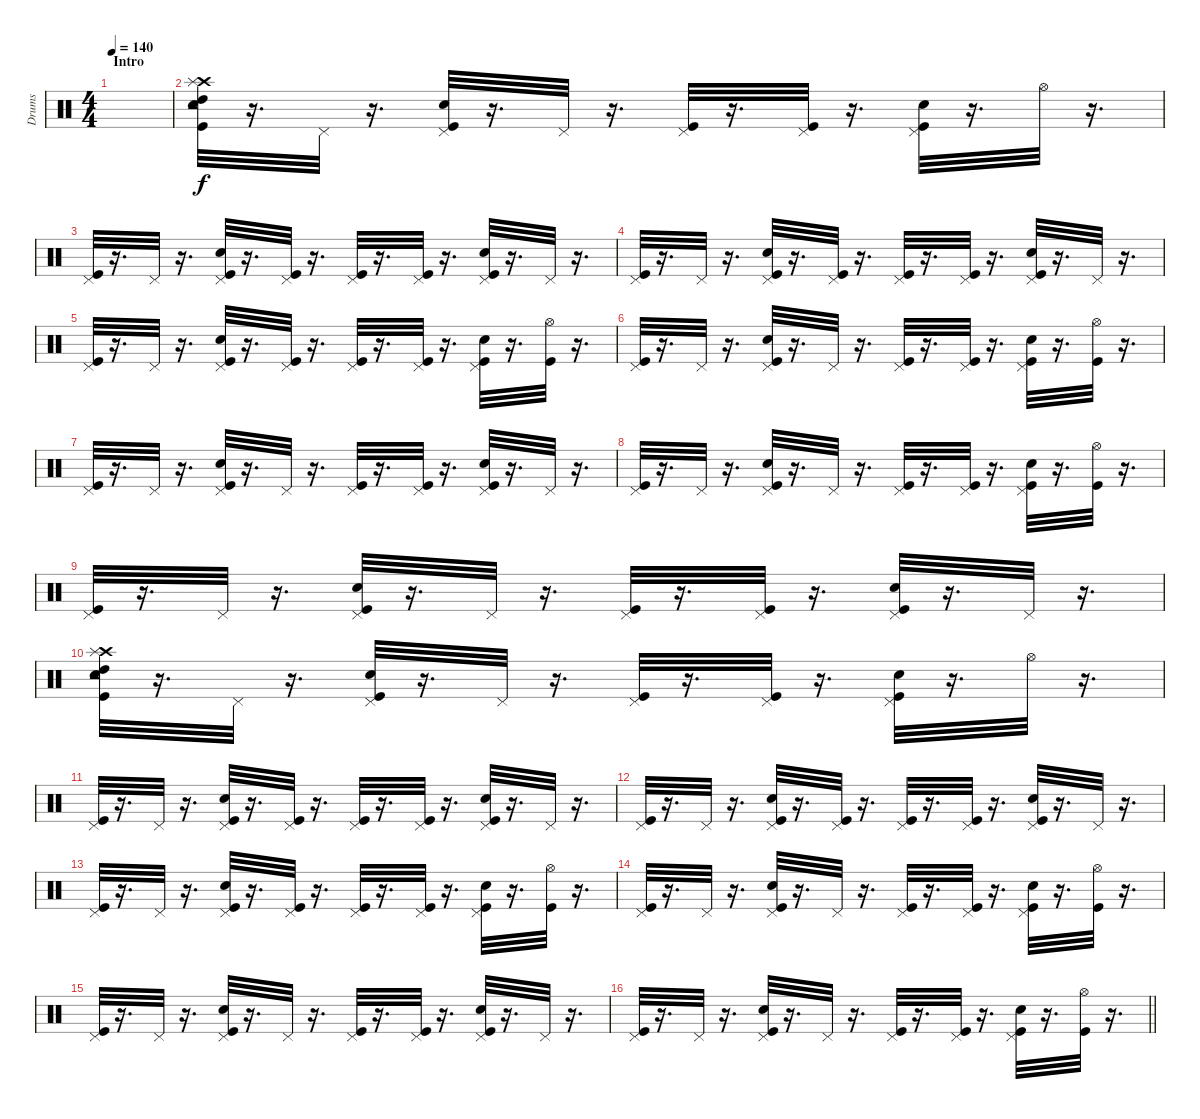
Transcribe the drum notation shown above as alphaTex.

\track ("Drums" "Drums") {instrument percussion}
\staff {score}
\articulation defaults
\ts (4 4)
\section ("" "Intro")
\tempo 140
\clef neutral
\ks c
|
("Crash high (hit)" "Kick (hit)" "Tambourine (hit)" "Snare (hit) 2" "Splash (hit)" "High Tom (hit)").32 r.16{d} "Pedal Hi-Hat (hit)".32 r.16{d} ("Snare (hit) 2" "Pedal Hi-Hat (hit)" "Kick (hit)").32 r.16{d} "Pedal Hi-Hat (hit)".32 r.16{d} ("Pedal Hi-Hat (hit)" "Kick (hit)").32 r.16{d} ("Pedal Hi-Hat (hit)" "Kick (hit)").32 r.16{d} ("Pedal Hi-Hat (hit)" "Kick (hit)" "Snare (hit) 2").32 r.16{d} "Hi-Hat (open)".32 r.16{d} |
("Pedal Hi-Hat (hit)" "Kick (hit)").32 r.16{d} "Pedal Hi-Hat (hit)".32 r.16{d} ("Kick (hit)" "Snare (hit) 2" "Pedal Hi-Hat (hit)").32 r.16{d} ("Pedal Hi-Hat (hit)" "Kick (hit)").32 r.16{d} ("Pedal Hi-Hat (hit)" "Kick (hit)").32 r.16{d} ("Pedal Hi-Hat (hit)" "Kick (hit)").32 r.16{d} ("Snare (hit) 2" "Kick (hit)" "Pedal Hi-Hat (hit)").32 r.16{d} "Pedal Hi-Hat (hit)".32 r.16{d} |
("Pedal Hi-Hat (hit)" "Kick (hit)").32 r.16{d} "Pedal Hi-Hat (hit)".32 r.16{d} ("Snare (hit) 2" "Kick (hit)" "Pedal Hi-Hat (hit)").32 r.16{d} ("Kick (hit)" "Pedal Hi-Hat (hit)").32 r.16{d} ("Pedal Hi-Hat (hit)" "Kick (hit)").32 r.16{d} ("Pedal Hi-Hat (hit)" "Kick (hit)").32 r.16{d} ("Pedal Hi-Hat (hit)" "Snare (hit) 2" "Kick (hit)").32 r.16{d} "Pedal Hi-Hat (hit)".32 r.16{d} |
("Pedal Hi-Hat (hit)" "Kick (hit)").32 r.16{d} "Pedal Hi-Hat (hit)".32 r.16{d} ("Kick (hit)" "Pedal Hi-Hat (hit)" "Snare (hit) 2").32 r.16{d} ("Pedal Hi-Hat (hit)" "Kick (hit)").32 r.16{d} ("Pedal Hi-Hat (hit)" "Kick (hit)").32 r.16{d} ("Kick (hit)" "Pedal Hi-Hat (hit)").32 r.16{d} ("Kick (hit)" "Snare (hit) 2" "Pedal Hi-Hat (hit)").32 r.16{d} ("Hi-Hat (open)" "Kick (hit)").32 r.16{d} |
("Pedal Hi-Hat (hit)" "Kick (hit)").32 r.16{d} "Pedal Hi-Hat (hit)".32 r.16{d} ("Pedal Hi-Hat (hit)" "Kick (hit)" "Snare (hit) 2").32 r.16{d} "Pedal Hi-Hat (hit)".32 r.16{d} ("Kick (hit)" "Pedal Hi-Hat (hit)").32 r.16{d} ("Kick (hit)" "Pedal Hi-Hat (hit)").32 r.16{d} ("Kick (hit)" "Snare (hit) 2" "Pedal Hi-Hat (hit)").32 r.16{d} ("Kick (hit)" "Hi-Hat (open)").32 r.16{d} |
("Kick (hit)" "Pedal Hi-Hat (hit)").32 r.16{d} "Pedal Hi-Hat (hit)".32 r.16{d} ("Pedal Hi-Hat (hit)" "Kick (hit)" "Snare (hit) 2").32 r.16{d} "Pedal Hi-Hat (hit)".32 r.16{d} ("Pedal Hi-Hat (hit)" "Kick (hit)").32 r.16{d} ("Pedal Hi-Hat (hit)" "Kick (hit)").32 r.16{d} ("Snare (hit) 2" "Kick (hit)" "Pedal Hi-Hat (hit)").32 r.16{d} "Pedal Hi-Hat (hit)".32 r.16{d} |
("Pedal Hi-Hat (hit)" "Kick (hit)").32 r.16{d} "Pedal Hi-Hat (hit)".32 r.16{d} ("Pedal Hi-Hat (hit)" "Kick (hit)" "Snare (hit) 2").32 r.16{d} "Pedal Hi-Hat (hit)".32 r.16{d} ("Kick (hit)" "Pedal Hi-Hat (hit)").32 r.16{d} ("Kick (hit)" "Pedal Hi-Hat (hit)").32 r.16{d} ("Kick (hit)" "Snare (hit) 2" "Pedal Hi-Hat (hit)").32 r.16{d} ("Kick (hit)" "Hi-Hat (open)").32 r.16{d} |
("Kick (hit)" "Pedal Hi-Hat (hit)").32 r.16{d} "Pedal Hi-Hat (hit)".32 r.16{d} ("Pedal Hi-Hat (hit)" "Kick (hit)" "Snare (hit) 2").32 r.16{d} "Pedal Hi-Hat (hit)".32 r.16{d} ("Pedal Hi-Hat (hit)" "Kick (hit)").32 r.16{d} ("Pedal Hi-Hat (hit)" "Kick (hit)").32 r.16{d} ("Snare (hit) 2" "Kick (hit)" "Pedal Hi-Hat (hit)").32 r.16{d} "Pedal Hi-Hat (hit)".32 r.16{d} |
("Crash high (hit)" "Kick (hit)" "Tambourine (hit)" "Snare (hit) 2" "Splash (hit)" "High Tom (hit)").32 r.16{d} "Pedal Hi-Hat (hit)".32 r.16{d} ("Snare (hit) 2" "Pedal Hi-Hat (hit)" "Kick (hit)").32 r.16{d} "Pedal Hi-Hat (hit)".32 r.16{d} ("Pedal Hi-Hat (hit)" "Kick (hit)").32 r.16{d} ("Pedal Hi-Hat (hit)" "Kick (hit)").32 r.16{d} ("Pedal Hi-Hat (hit)" "Kick (hit)" "Snare (hit) 2").32 r.16{d} "Hi-Hat (open)".32 r.16{d} |
("Pedal Hi-Hat (hit)" "Kick (hit)").32 r.16{d} "Pedal Hi-Hat (hit)".32 r.16{d} ("Kick (hit)" "Snare (hit) 2" "Pedal Hi-Hat (hit)").32 r.16{d} ("Pedal Hi-Hat (hit)" "Kick (hit)").32 r.16{d} ("Pedal Hi-Hat (hit)" "Kick (hit)").32 r.16{d} ("Pedal Hi-Hat (hit)" "Kick (hit)").32 r.16{d} ("Snare (hit) 2" "Kick (hit)" "Pedal Hi-Hat (hit)").32 r.16{d} "Pedal Hi-Hat (hit)".32 r.16{d} |
("Pedal Hi-Hat (hit)" "Kick (hit)").32 r.16{d} "Pedal Hi-Hat (hit)".32 r.16{d} ("Snare (hit) 2" "Kick (hit)" "Pedal Hi-Hat (hit)").32 r.16{d} ("Kick (hit)" "Pedal Hi-Hat (hit)").32 r.16{d} ("Pedal Hi-Hat (hit)" "Kick (hit)").32 r.16{d} ("Pedal Hi-Hat (hit)" "Kick (hit)").32 r.16{d} ("Pedal Hi-Hat (hit)" "Snare (hit) 2" "Kick (hit)").32 r.16{d} "Pedal Hi-Hat (hit)".32 r.16{d} |
("Pedal Hi-Hat (hit)" "Kick (hit)").32 r.16{d} "Pedal Hi-Hat (hit)".32 r.16{d} ("Kick (hit)" "Pedal Hi-Hat (hit)" "Snare (hit) 2").32 r.16{d} ("Pedal Hi-Hat (hit)" "Kick (hit)").32 r.16{d} ("Pedal Hi-Hat (hit)" "Kick (hit)").32 r.16{d} ("Kick (hit)" "Pedal Hi-Hat (hit)").32 r.16{d} ("Kick (hit)" "Snare (hit) 2" "Pedal Hi-Hat (hit)").32 r.16{d} ("Hi-Hat (open)" "Kick (hit)").32 r.16{d} |
("Pedal Hi-Hat (hit)" "Kick (hit)").32 r.16{d} "Pedal Hi-Hat (hit)".32 r.16{d} ("Pedal Hi-Hat (hit)" "Kick (hit)" "Snare (hit) 2").32 r.16{d} "Pedal Hi-Hat (hit)".32 r.16{d} ("Kick (hit)" "Pedal Hi-Hat (hit)").32 r.16{d} ("Kick (hit)" "Pedal Hi-Hat (hit)").32 r.16{d} ("Kick (hit)" "Snare (hit) 2" "Pedal Hi-Hat (hit)").32 r.16{d} ("Kick (hit)" "Hi-Hat (open)").32 r.16{d} |
("Kick (hit)" "Pedal Hi-Hat (hit)").32 r.16{d} "Pedal Hi-Hat (hit)".32 r.16{d} ("Pedal Hi-Hat (hit)" "Kick (hit)" "Snare (hit) 2").32 r.16{d} "Pedal Hi-Hat (hit)".32 r.16{d} ("Pedal Hi-Hat (hit)" "Kick (hit)").32 r.16{d} ("Pedal Hi-Hat (hit)" "Kick (hit)").32 r.16{d} ("Snare (hit) 2" "Kick (hit)" "Pedal Hi-Hat (hit)").32 r.16{d} "Pedal Hi-Hat (hit)".32 r.16{d} |
\barLineRight lightlight
("Pedal Hi-Hat (hit)" "Kick (hit)").32 r.16{d} "Pedal Hi-Hat (hit)".32 r.16{d} ("Pedal Hi-Hat (hit)" "Kick (hit)" "Snare (hit) 2").32 r.16{d} "Pedal Hi-Hat (hit)".32 r.16{d} ("Kick (hit)" "Pedal Hi-Hat (hit)").32 r.16{d} ("Kick (hit)" "Pedal Hi-Hat (hit)").32 r.16{d} ("Kick (hit)" "Snare (hit) 2" "Pedal Hi-Hat (hit)").32 r.16{d} ("Kick (hit)" "Hi-Hat (open)").32 r.16{d}
